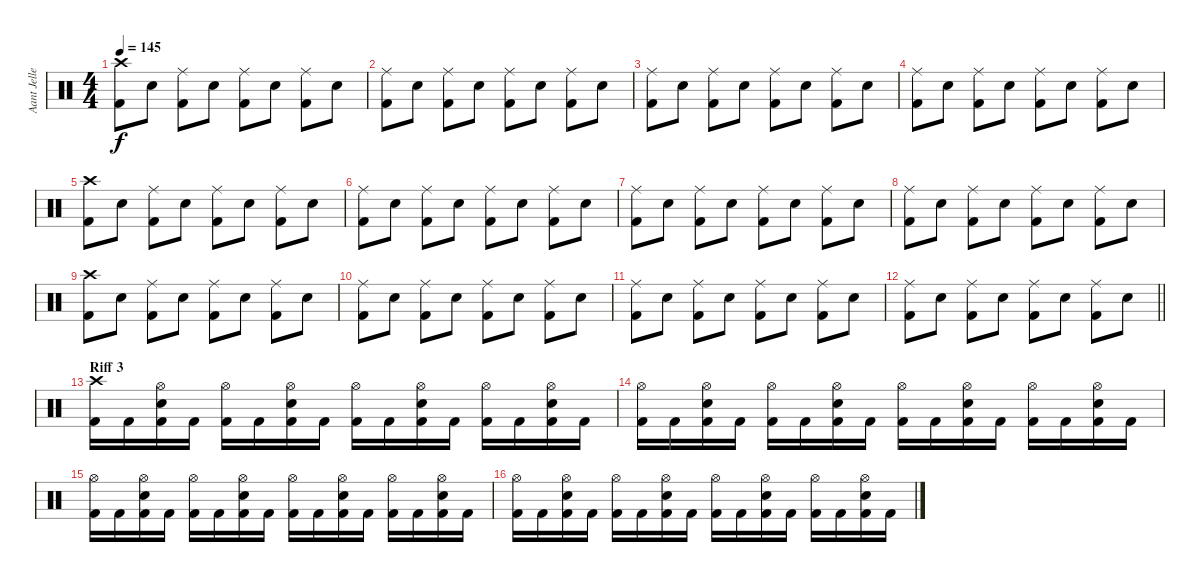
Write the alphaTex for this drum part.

\track ("Aant Jelle" "Aant Jelle") {instrument percussion}
\staff {score}
\articulation defaults
\ts (4 4)
\tempo 145
\clef neutral
\ks c
("Crash high (hit)" "Kick (hit) 2").8{dy f} "Snare (hit) 2".8 ("Ride (middle)" "Kick (hit) 2").8 "Snare (hit) 2".8 ("Ride (middle)" "Kick (hit) 2").8 "Snare (hit) 2".8 ("Ride (middle)" "Kick (hit) 2").8 "Snare (hit) 2".8 |
("Ride (middle)" "Kick (hit) 2").8 "Snare (hit) 2".8 ("Ride (middle)" "Kick (hit) 2").8 "Snare (hit) 2".8 ("Ride (middle)" "Kick (hit) 2").8 "Snare (hit) 2".8 ("Ride (middle)" "Kick (hit) 2").8 "Snare (hit) 2".8 |
("Ride (middle)" "Kick (hit) 2").8 "Snare (hit) 2".8 ("Ride (middle)" "Kick (hit) 2").8 "Snare (hit) 2".8 ("Ride (middle)" "Kick (hit) 2").8 "Snare (hit) 2".8 ("Ride (middle)" "Kick (hit) 2").8 "Snare (hit) 2".8 |
("Ride (middle)" "Kick (hit) 2").8 "Snare (hit) 2".8 ("Ride (middle)" "Kick (hit) 2").8 "Snare (hit) 2".8 ("Ride (middle)" "Kick (hit) 2").8 "Snare (hit) 2".8 ("Ride (middle)" "Kick (hit) 2").8 "Snare (hit) 2".8 |
("Crash high (hit)" "Kick (hit) 2").8 "Snare (hit) 2".8 ("Ride (middle)" "Kick (hit) 2").8 "Snare (hit) 2".8 ("Ride (middle)" "Kick (hit) 2").8 "Snare (hit) 2".8 ("Ride (middle)" "Kick (hit) 2").8 "Snare (hit) 2".8 |
("Ride (middle)" "Kick (hit) 2").8 "Snare (hit) 2".8 ("Ride (middle)" "Kick (hit) 2").8 "Snare (hit) 2".8 ("Ride (middle)" "Kick (hit) 2").8 "Snare (hit) 2".8 ("Ride (middle)" "Kick (hit) 2").8 "Snare (hit) 2".8 |
("Ride (middle)" "Kick (hit) 2").8 "Snare (hit) 2".8 ("Ride (middle)" "Kick (hit) 2").8 "Snare (hit) 2".8 ("Ride (middle)" "Kick (hit) 2").8 "Snare (hit) 2".8 ("Ride (middle)" "Kick (hit) 2").8 "Snare (hit) 2".8 |
("Ride (middle)" "Kick (hit) 2").8 "Snare (hit) 2".8 ("Ride (middle)" "Kick (hit) 2").8 "Snare (hit) 2".8 ("Ride (middle)" "Kick (hit) 2").8 "Snare (hit) 2".8 ("Ride (middle)" "Kick (hit) 2").8 "Snare (hit) 2".8 |
("Crash high (hit)" "Kick (hit) 2").8 "Snare (hit) 2".8 ("Ride (middle)" "Kick (hit) 2").8 "Snare (hit) 2".8 ("Ride (middle)" "Kick (hit) 2").8 "Snare (hit) 2".8 ("Ride (middle)" "Kick (hit) 2").8 "Snare (hit) 2".8 |
("Ride (middle)" "Kick (hit) 2").8 "Snare (hit) 2".8 ("Ride (middle)" "Kick (hit) 2").8 "Snare (hit) 2".8 ("Ride (middle)" "Kick (hit) 2").8 "Snare (hit) 2".8 ("Ride (middle)" "Kick (hit) 2").8 "Snare (hit) 2".8 |
("Ride (middle)" "Kick (hit) 2").8 "Snare (hit) 2".8 ("Ride (middle)" "Kick (hit) 2").8 "Snare (hit) 2".8 ("Ride (middle)" "Kick (hit) 2").8 "Snare (hit) 2".8 ("Ride (middle)" "Kick (hit) 2").8 "Snare (hit) 2".8 |
\barLineRight lightlight
("Ride (middle)" "Kick (hit) 2").8 "Snare (hit) 2".8 ("Ride (middle)" "Kick (hit) 2").8 "Snare (hit) 2".8 ("Ride (middle)" "Kick (hit) 2").8 "Snare (hit) 2".8 ("Ride (middle)" "Kick (hit) 2").8 "Snare (hit) 2".8 |
\section ("" "Riff 3")
("Crash high (hit)" "Kick (hit) 2").16 "Kick (hit) 2".16 ("Hi-Hat (open)" "Electric Snare (hit)" "Kick (hit) 2").16 "Kick (hit) 2".16 ("Hi-Hat (open)" "Kick (hit) 2").16 "Kick (hit) 2".16 ("Hi-Hat (open)" "Electric Snare (hit)" "Kick (hit) 2").16 "Kick (hit) 2".16 ("Hi-Hat (open)" "Kick (hit) 2").16 "Kick (hit) 2".16 ("Hi-Hat (open)" "Electric Snare (hit)" "Kick (hit) 2").16 "Kick (hit) 2".16 ("Hi-Hat (open)" "Kick (hit) 2").16 "Kick (hit) 2".16 ("Hi-Hat (open)" "Electric Snare (hit)" "Kick (hit) 2").16 "Kick (hit) 2".16 |
("Hi-Hat (open)" "Kick (hit) 2").16 "Kick (hit) 2".16 ("Hi-Hat (open)" "Electric Snare (hit)" "Kick (hit) 2").16 "Kick (hit) 2".16 ("Hi-Hat (open)" "Kick (hit) 2").16 "Kick (hit) 2".16 ("Hi-Hat (open)" "Electric Snare (hit)" "Kick (hit) 2").16 "Kick (hit) 2".16 ("Hi-Hat (open)" "Kick (hit) 2").16 "Kick (hit) 2".16 ("Hi-Hat (open)" "Electric Snare (hit)" "Kick (hit) 2").16 "Kick (hit) 2".16 ("Hi-Hat (open)" "Kick (hit) 2").16 "Kick (hit) 2".16 ("Hi-Hat (open)" "Electric Snare (hit)" "Kick (hit) 2").16 "Kick (hit) 2".16 |
("Hi-Hat (open)" "Kick (hit) 2").16 "Kick (hit) 2".16 ("Hi-Hat (open)" "Electric Snare (hit)" "Kick (hit) 2").16 "Kick (hit) 2".16 ("Hi-Hat (open)" "Kick (hit) 2").16 "Kick (hit) 2".16 ("Hi-Hat (open)" "Electric Snare (hit)" "Kick (hit) 2").16 "Kick (hit) 2".16 ("Hi-Hat (open)" "Kick (hit) 2").16 "Kick (hit) 2".16 ("Hi-Hat (open)" "Electric Snare (hit)" "Kick (hit) 2").16 "Kick (hit) 2".16 ("Hi-Hat (open)" "Kick (hit) 2").16 "Kick (hit) 2".16 ("Hi-Hat (open)" "Electric Snare (hit)" "Kick (hit) 2").16 "Kick (hit) 2".16 |
("Hi-Hat (open)" "Kick (hit) 2").16 "Kick (hit) 2".16 ("Hi-Hat (open)" "Electric Snare (hit)" "Kick (hit) 2").16 "Kick (hit) 2".16 ("Hi-Hat (open)" "Kick (hit) 2").16 "Kick (hit) 2".16 ("Hi-Hat (open)" "Electric Snare (hit)" "Kick (hit) 2").16 "Kick (hit) 2".16 ("Hi-Hat (open)" "Kick (hit) 2").16 "Kick (hit) 2".16 ("Hi-Hat (open)" "Electric Snare (hit)" "Kick (hit) 2").16 "Kick (hit) 2".16 ("Hi-Hat (open)" "Kick (hit) 2").16 "Kick (hit) 2".16 ("Hi-Hat (open)" "Electric Snare (hit)" "Kick (hit) 2").16 "Kick (hit) 2".16
